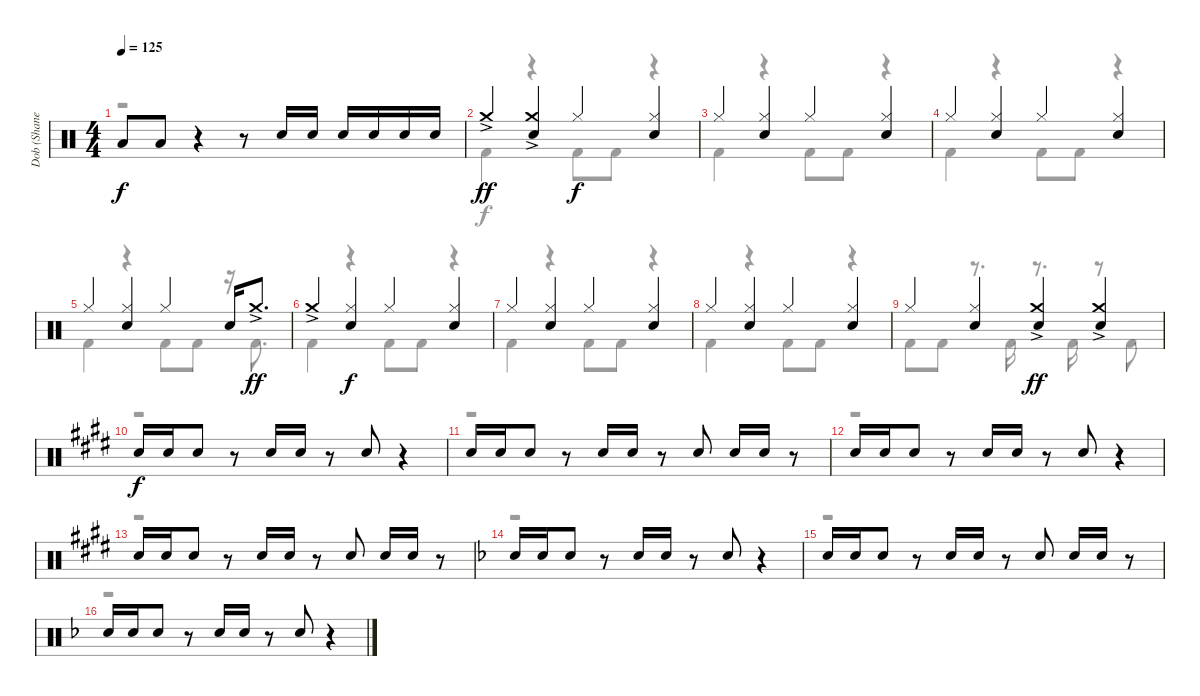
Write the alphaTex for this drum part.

\track ("Dob (Shane Gaalaas)" "Dob (Shane") {instrument percussion}
\staff {score}
\articulation defaults
\voice
\ts (4 4)
\tempo 125
\clef neutral
\ks c "Low Tom (hit)".8{dy f} "Low Tom (hit)".8
r.4 r.8 "Electric Snare (hit)".16 "Electric Snare (hit)".16 "Electric Snare (hit)".16 "Electric Snare (hit)".16 "Electric Snare (hit)".16 "Electric Snare (hit)".16 |
"Crash medium (hit)"{ac}.4{dy ff volume 12} ("Crash medium (hit)"{ac} "Electric Snare (hit)").4 "Hi-Hat (closed)".4{dy f} ("Hi-Hat (closed)" "Electric Snare (hit)").4 |
"Hi-Hat (closed)".4 ("Hi-Hat (closed)" "Electric Snare (hit)").4 "Hi-Hat (closed)".4 ("Hi-Hat (closed)" "Electric Snare (hit)").4 |
"Hi-Hat (closed)".4 ("Hi-Hat (closed)" "Electric Snare (hit)").4 "Hi-Hat (closed)".4 ("Hi-Hat (closed)" "Electric Snare (hit)").4 |
"Hi-Hat (closed)".4 ("Hi-Hat (closed)" "Electric Snare (hit)").4 "Hi-Hat (closed)".4 "Electric Snare (hit)".16 "Crash medium (hit)"{ac}.8{d dy ff} |
"Crash medium (hit)"{ac}.4 ("Hi-Hat (closed)" "Electric Snare (hit)").4{dy f} "Hi-Hat (closed)".4 ("Hi-Hat (closed)" "Electric Snare (hit)").4 |
"Hi-Hat (closed)".4 ("Hi-Hat (closed)" "Electric Snare (hit)").4 "Hi-Hat (closed)".4 ("Hi-Hat (closed)" "Electric Snare (hit)").4 |
"Hi-Hat (closed)".4 ("Hi-Hat (closed)" "Electric Snare (hit)").4 "Hi-Hat (closed)".4 ("Hi-Hat (closed)" "Electric Snare (hit)").4 |
"Hi-Hat (closed)".4 ("Hi-Hat (closed)" "Electric Snare (hit)").4 ("Crash medium (hit)"{ac} "Electric Snare (hit)").4{dy ff} ("Crash medium (hit)"{ac} "Electric Snare (hit)").4 |
\ks e "Electric Snare (hit)".16{dy f} "Electric Snare (hit)".16 "Electric Snare (hit)".8
r.8 "Electric Snare (hit)".16 "Electric Snare (hit)".16 r.8 "Electric Snare (hit)".8 r.4 |
"Electric Snare (hit)".16 "Electric Snare (hit)".16 "Electric Snare (hit)".8 r.8 "Electric Snare (hit)".16 "Electric Snare (hit)".16 r.8 "Electric Snare (hit)".8 "Electric Snare (hit)".16 "Electric Snare (hit)".16 r.8 |
"Electric Snare (hit)".16 "Electric Snare (hit)".16 "Electric Snare (hit)".8 r.8 "Electric Snare (hit)".16 "Electric Snare (hit)".16 r.8 "Electric Snare (hit)".8 r.4 |
"Electric Snare (hit)".16 "Electric Snare (hit)".16 "Electric Snare (hit)".8 r.8 "Electric Snare (hit)".16 "Electric Snare (hit)".16 r.8 "Electric Snare (hit)".8 "Electric Snare (hit)".16 "Electric Snare (hit)".16 r.8 |
\ks f "Electric Snare (hit)".16 "Electric Snare (hit)".16 "Electric Snare (hit)".8
r.8 "Electric Snare (hit)".16 "Electric Snare (hit)".16 r.8 "Electric Snare (hit)".8 r.4 |
"Electric Snare (hit)".16 "Electric Snare (hit)".16 "Electric Snare (hit)".8 r.8 "Electric Snare (hit)".16 "Electric Snare (hit)".16 r.8 "Electric Snare (hit)".8 "Electric Snare (hit)".16 "Electric Snare (hit)".16 r.8 |
"Electric Snare (hit)".16 "Electric Snare (hit)".16 "Electric Snare (hit)".8 r.8 "Electric Snare (hit)".16 "Electric Snare (hit)".16 r.8 "Electric Snare (hit)".8 r.4
\voice
\clef neutral
\ottava regular
\simile none
\ks c
r.1{dy f} |
"Kick (hit) 2".4 r.4 "Kick (hit) 2".8 "Kick (hit) 2".8 r.4 |
"Kick (hit) 2".4 r.4 "Kick (hit) 2".8 "Kick (hit) 2".8 r.4 |
"Kick (hit) 2".4 r.4 "Kick (hit) 2".8 "Kick (hit) 2".8 r.4 |
"Kick (hit) 2".4 r.4 "Kick (hit) 2".8 "Kick (hit) 2".8 r.16 "Kick (hit) 2".8{d} |
"Kick (hit) 2".4 r.4 "Kick (hit) 2".8 "Kick (hit) 2".8 r.4 |
"Kick (hit) 2".4 r.4 "Kick (hit) 2".8 "Kick (hit) 2".8 r.4 |
"Kick (hit) 2".4 r.4 "Kick (hit) 2".8 "Kick (hit) 2".8 r.4 |
"Kick (hit) 2".8 "Kick (hit) 2".8 r.8{d} "Kick (hit) 2".16 r.8{d} "Kick (hit) 2".16 r.8 "Kick (hit) 2".8 |
\ks e
r.1 |
r.1 |
r.1 |
r.1 |
\ks f
r.1 |
r.1 |
r.1
